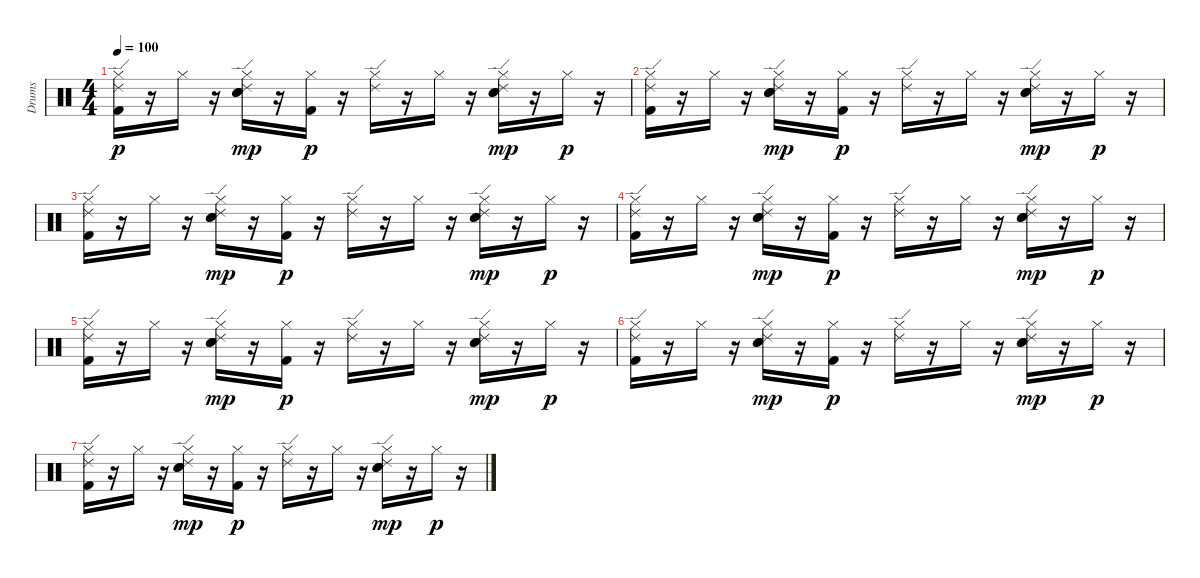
\track ("Drums" "Drums") {instrument percussion}
\staff {score}
\articulation defaults
\ts (4 4)
\tempo 100
\clef neutral
\ks c
("Hi-Hat (closed)" "Ride (edge) 2" "Kick (hit) 2").16{dy p} r.16 "Hi-Hat (closed)".16 r.16 ("Hi-Hat (closed)" "Ride (edge) 2" "Electric Snare (hit)" "Snare (hit) 2").16{dy mp} r.16 ("Hi-Hat (closed)" "Kick (hit) 2").16{dy p} r.16 ("Hi-Hat (closed)" "Ride (edge) 2").16 r.16 "Hi-Hat (closed)".16 r.16 ("Hi-Hat (closed)" "Ride (edge) 2" "Electric Snare (hit)" "Snare (hit) 2").16{dy mp} r.16 "Hi-Hat (closed)".16{dy p} r.16 |
("Hi-Hat (closed)" "Ride (edge) 2" "Kick (hit) 2").16 r.16 "Hi-Hat (closed)".16 r.16 ("Hi-Hat (closed)" "Ride (edge) 2" "Electric Snare (hit)" "Snare (hit) 2").16{dy mp} r.16 ("Hi-Hat (closed)" "Kick (hit) 2").16{dy p} r.16 ("Hi-Hat (closed)" "Ride (edge) 2").16 r.16 "Hi-Hat (closed)".16 r.16 ("Hi-Hat (closed)" "Ride (edge) 2" "Electric Snare (hit)" "Snare (hit) 2").16{dy mp} r.16 "Hi-Hat (closed)".16{dy p} r.16 |
("Hi-Hat (closed)" "Ride (edge) 2" "Kick (hit) 2").16 r.16 "Hi-Hat (closed)".16 r.16 ("Hi-Hat (closed)" "Ride (edge) 2" "Electric Snare (hit)" "Snare (hit) 2").16{dy mp} r.16 ("Hi-Hat (closed)" "Kick (hit) 2").16{dy p} r.16 ("Hi-Hat (closed)" "Ride (edge) 2").16 r.16 "Hi-Hat (closed)".16 r.16 ("Hi-Hat (closed)" "Ride (edge) 2" "Electric Snare (hit)" "Snare (hit) 2").16{dy mp} r.16 "Hi-Hat (closed)".16{dy p} r.16 |
("Hi-Hat (closed)" "Ride (edge) 2" "Kick (hit) 2").16 r.16 "Hi-Hat (closed)".16 r.16 ("Hi-Hat (closed)" "Ride (edge) 2" "Electric Snare (hit)" "Snare (hit) 2").16{dy mp} r.16 ("Hi-Hat (closed)" "Kick (hit) 2").16{dy p} r.16 ("Hi-Hat (closed)" "Ride (edge) 2").16 r.16 "Hi-Hat (closed)".16 r.16 ("Hi-Hat (closed)" "Ride (edge) 2" "Electric Snare (hit)" "Snare (hit) 2").16{dy mp} r.16 "Hi-Hat (closed)".16{dy p} r.16 |
("Hi-Hat (closed)" "Ride (edge) 2" "Kick (hit) 2").16 r.16 "Hi-Hat (closed)".16 r.16 ("Hi-Hat (closed)" "Ride (edge) 2" "Electric Snare (hit)" "Snare (hit) 2").16{dy mp} r.16 ("Hi-Hat (closed)" "Kick (hit) 2").16{dy p} r.16 ("Hi-Hat (closed)" "Ride (edge) 2").16 r.16 "Hi-Hat (closed)".16 r.16 ("Hi-Hat (closed)" "Ride (edge) 2" "Electric Snare (hit)" "Snare (hit) 2").16{dy mp} r.16 "Hi-Hat (closed)".16{dy p} r.16 |
("Hi-Hat (closed)" "Ride (edge) 2" "Kick (hit) 2").16 r.16 "Hi-Hat (closed)".16 r.16 ("Hi-Hat (closed)" "Ride (edge) 2" "Electric Snare (hit)" "Snare (hit) 2").16{dy mp} r.16 ("Hi-Hat (closed)" "Kick (hit) 2").16{dy p} r.16 ("Hi-Hat (closed)" "Ride (edge) 2").16 r.16 "Hi-Hat (closed)".16 r.16 ("Hi-Hat (closed)" "Ride (edge) 2" "Electric Snare (hit)" "Snare (hit) 2").16{dy mp} r.16 "Hi-Hat (closed)".16{dy p} r.16 |
("Hi-Hat (closed)" "Ride (edge) 2" "Kick (hit) 2").16 r.16 "Hi-Hat (closed)".16 r.16 ("Hi-Hat (closed)" "Ride (edge) 2" "Electric Snare (hit)" "Snare (hit) 2").16{dy mp} r.16 ("Hi-Hat (closed)" "Kick (hit) 2").16{dy p} r.16 ("Hi-Hat (closed)" "Ride (edge) 2").16 r.16 "Hi-Hat (closed)".16 r.16 ("Hi-Hat (closed)" "Ride (edge) 2" "Electric Snare (hit)" "Snare (hit) 2").16{dy mp} r.16 "Hi-Hat (closed)".16{dy p} r.16
